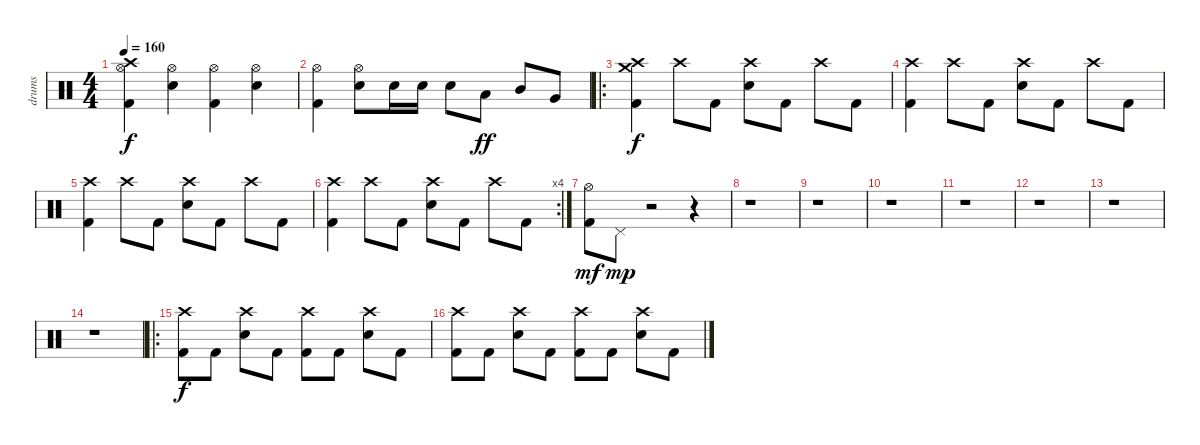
\track ("drums" "drums") {instrument percussion}
\staff {score}
\articulation defaults
\ts (4 4)
\tempo 160
\clef neutral
\ks c
("Kick (hit) 2" "Crash high (hit)" "Hi-Hat (open)").4{dy f} ("Hi-Hat (open)" "Snare (hit) 2").4 ("Kick (hit) 2" "Hi-Hat (open)").4 ("Hi-Hat (open)" "Snare (hit) 2").4 |
("Kick (hit) 2" "Hi-Hat (open)").4 ("Hi-Hat (open)" "Snare (hit) 2").8 "Snare (hit) 2".16 "Snare (hit) 2".16 "Snare (hit) 2".8 "Low Tom (hit)".8{dy ff} "Mid Tom (hit)".8 "Very Low Tom (hit)".8 |
\ro
("Kick (hit) 2" "Crash high (hit)" "Crash medium (hit)").4{dy f} "Crash high (hit)".8 "Kick (hit) 2".8 ("Crash high (hit)" "Snare (hit) 2").8 "Kick (hit) 2".8 "Crash high (hit)".8 "Kick (hit) 2".8 |
("Kick (hit) 2" "Crash high (hit)").4 "Crash high (hit)".8 "Kick (hit) 2".8 ("Crash high (hit)" "Snare (hit) 2").8 "Kick (hit) 2".8 "Crash high (hit)".8 "Kick (hit) 2".8 |
("Kick (hit) 2" "Crash high (hit)").4 "Crash high (hit)".8 "Kick (hit) 2".8 ("Crash high (hit)" "Snare (hit) 2").8 "Kick (hit) 2".8 "Crash high (hit)".8 "Kick (hit) 2".8 |
\rc 4
("Kick (hit) 2" "Crash high (hit)").4 "Crash high (hit)".8 "Kick (hit) 2".8 ("Crash high (hit)" "Snare (hit) 2").8 "Kick (hit) 2".8 "Crash high (hit)".8 "Kick (hit) 2".8 |
("Kick (hit) 2" "Hi-Hat (open)").8{dy mf} "Pedal Hi-Hat (hit)".8{dy mp} r.2 r.4 |
r.1 |
r.1 |
r.1 |
r.1 |
r.1 |
r.1 |
r.1 |
\ro
("Kick (hit) 2" "Crash high (hit)").8{dy f} "Kick (hit) 2".8 ("Crash high (hit)" "Snare (hit) 2").8 "Kick (hit) 2".8 ("Kick (hit) 2" "Crash high (hit)").8 "Kick (hit) 2".8 ("Crash high (hit)" "Snare (hit) 2").8 "Kick (hit) 2".8 |
("Kick (hit) 2" "Crash high (hit)").8 "Kick (hit) 2".8 ("Crash high (hit)" "Snare (hit) 2").8 "Kick (hit) 2".8 ("Kick (hit) 2" "Crash high (hit)").8 "Kick (hit) 2".8 ("Crash high (hit)" "Snare (hit) 2").8 "Kick (hit) 2".8
